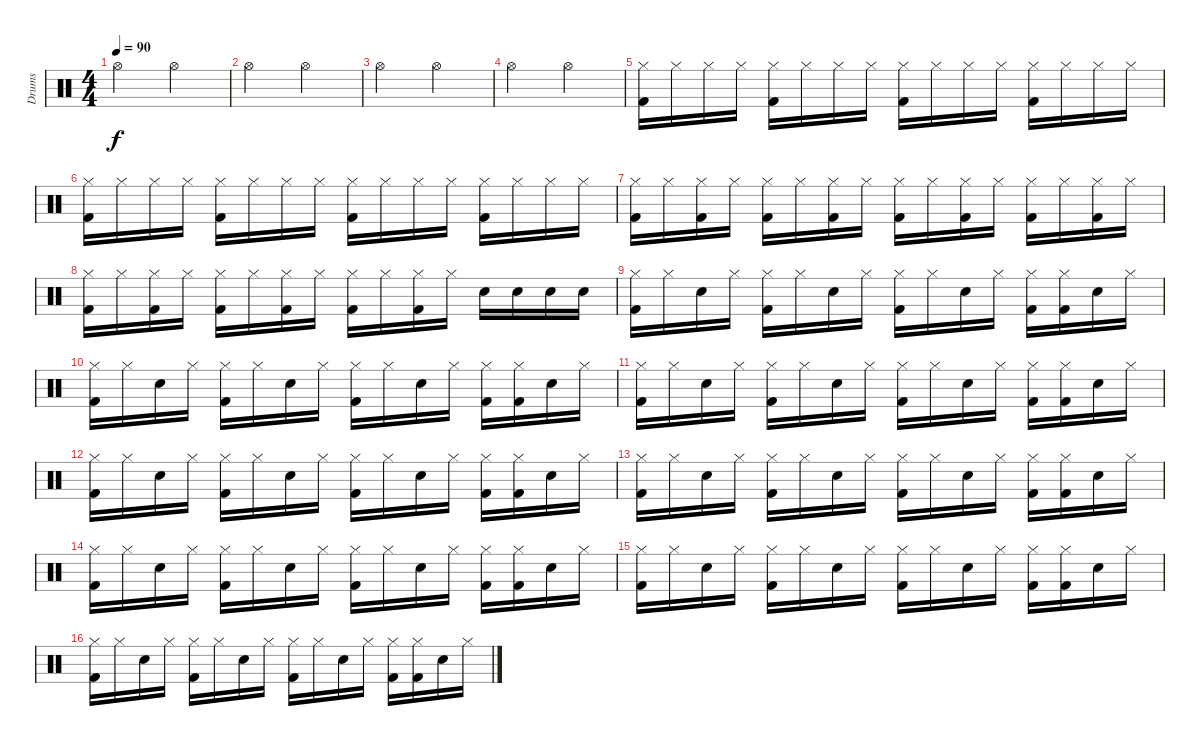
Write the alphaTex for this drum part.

\track ("Drums" "Drums") {instrument percussion}
\staff {score}
\articulation defaults
\ts (4 4)
\tempo 90
\clef neutral
\ks c "Hi-Hat (open)".2{dy f} "Hi-Hat (open)".2
|
"Hi-Hat (open)".2 "Hi-Hat (open)".2 |
"Hi-Hat (open)".2 "Hi-Hat (open)".2 |
"Hi-Hat (open)".2 "Hi-Hat (open)".2 |
("Hi-Hat (closed)" "Kick (hit) 2").16 "Hi-Hat (closed)".16 "Hi-Hat (closed)".16 "Hi-Hat (closed)".16 ("Hi-Hat (closed)" "Kick (hit) 2").16 "Hi-Hat (closed)".16 "Hi-Hat (closed)".16 "Hi-Hat (closed)".16 ("Hi-Hat (closed)" "Kick (hit) 2").16 "Hi-Hat (closed)".16 "Hi-Hat (closed)".16 "Hi-Hat (closed)".16 ("Hi-Hat (closed)" "Kick (hit) 2").16 "Hi-Hat (closed)".16 "Hi-Hat (closed)".16 "Hi-Hat (closed)".16 |
("Hi-Hat (closed)" "Kick (hit) 2").16 "Hi-Hat (closed)".16 "Hi-Hat (closed)".16 "Hi-Hat (closed)".16 ("Hi-Hat (closed)" "Kick (hit) 2").16 "Hi-Hat (closed)".16 "Hi-Hat (closed)".16 "Hi-Hat (closed)".16 ("Hi-Hat (closed)" "Kick (hit) 2").16 "Hi-Hat (closed)".16 "Hi-Hat (closed)".16 "Hi-Hat (closed)".16 ("Hi-Hat (closed)" "Kick (hit) 2").16 "Hi-Hat (closed)".16 "Hi-Hat (closed)".16 "Hi-Hat (closed)".16 |
("Hi-Hat (closed)" "Kick (hit) 2").16 "Hi-Hat (closed)".16 ("Hi-Hat (closed)" "Kick (hit) 2").16 "Hi-Hat (closed)".16 ("Hi-Hat (closed)" "Kick (hit) 2").16 "Hi-Hat (closed)".16 ("Hi-Hat (closed)" "Kick (hit) 2").16 "Hi-Hat (closed)".16 ("Hi-Hat (closed)" "Kick (hit) 2").16 "Hi-Hat (closed)".16 ("Hi-Hat (closed)" "Kick (hit) 2").16 "Hi-Hat (closed)".16 ("Hi-Hat (closed)" "Kick (hit) 2").16 "Hi-Hat (closed)".16 ("Hi-Hat (closed)" "Kick (hit) 2").16 "Hi-Hat (closed)".16 |
("Hi-Hat (closed)" "Kick (hit) 2").16 "Hi-Hat (closed)".16 ("Hi-Hat (closed)" "Kick (hit) 2").16 "Hi-Hat (closed)".16 ("Hi-Hat (closed)" "Kick (hit) 2").16 "Hi-Hat (closed)".16 ("Hi-Hat (closed)" "Kick (hit) 2").16 "Hi-Hat (closed)".16 ("Hi-Hat (closed)" "Kick (hit) 2").16 "Hi-Hat (closed)".16 ("Hi-Hat (closed)" "Kick (hit) 2").16 "Hi-Hat (closed)".16 "Snare (hit) 2".16 "Snare (hit) 2".16 "Snare (hit) 2".16 "Snare (hit) 2".16 |
("Hi-Hat (closed)" "Kick (hit) 2").16 "Hi-Hat (closed)".16 "Electric Snare (hit)".16 "Hi-Hat (closed)".16 ("Hi-Hat (closed)" "Kick (hit) 2").16 "Hi-Hat (closed)".16 "Electric Snare (hit)".16 "Hi-Hat (closed)".16 ("Hi-Hat (closed)" "Kick (hit) 2").16 "Hi-Hat (closed)".16 "Electric Snare (hit)".16 "Hi-Hat (closed)".16 ("Hi-Hat (closed)" "Kick (hit) 2").16 ("Hi-Hat (closed)" "Kick (hit) 2").16 "Electric Snare (hit)".16 "Hi-Hat (closed)".16 |
("Hi-Hat (closed)" "Kick (hit) 2").16 "Hi-Hat (closed)".16 "Electric Snare (hit)".16 "Hi-Hat (closed)".16 ("Hi-Hat (closed)" "Kick (hit) 2").16 "Hi-Hat (closed)".16 "Electric Snare (hit)".16 "Hi-Hat (closed)".16 ("Hi-Hat (closed)" "Kick (hit) 2").16 "Hi-Hat (closed)".16 "Electric Snare (hit)".16 "Hi-Hat (closed)".16 ("Hi-Hat (closed)" "Kick (hit) 2").16 ("Hi-Hat (closed)" "Kick (hit) 2").16 "Electric Snare (hit)".16 "Hi-Hat (closed)".16 |
("Hi-Hat (closed)" "Kick (hit) 2").16 "Hi-Hat (closed)".16 "Electric Snare (hit)".16 "Hi-Hat (closed)".16 ("Hi-Hat (closed)" "Kick (hit) 2").16 "Hi-Hat (closed)".16 "Electric Snare (hit)".16 "Hi-Hat (closed)".16 ("Hi-Hat (closed)" "Kick (hit) 2").16 "Hi-Hat (closed)".16 "Electric Snare (hit)".16 "Hi-Hat (closed)".16 ("Hi-Hat (closed)" "Kick (hit) 2").16 ("Hi-Hat (closed)" "Kick (hit) 2").16 "Electric Snare (hit)".16 "Hi-Hat (closed)".16 |
("Hi-Hat (closed)" "Kick (hit) 2").16 "Hi-Hat (closed)".16 "Electric Snare (hit)".16 "Hi-Hat (closed)".16 ("Hi-Hat (closed)" "Kick (hit) 2").16 "Hi-Hat (closed)".16 "Electric Snare (hit)".16 "Hi-Hat (closed)".16 ("Hi-Hat (closed)" "Kick (hit) 2").16 "Hi-Hat (closed)".16 "Electric Snare (hit)".16 "Hi-Hat (closed)".16 ("Hi-Hat (closed)" "Kick (hit) 2").16 ("Hi-Hat (closed)" "Kick (hit) 2").16 "Electric Snare (hit)".16 "Hi-Hat (closed)".16 |
("Hi-Hat (closed)" "Kick (hit) 2").16 "Hi-Hat (closed)".16 "Electric Snare (hit)".16 "Hi-Hat (closed)".16 ("Hi-Hat (closed)" "Kick (hit) 2").16 "Hi-Hat (closed)".16 "Electric Snare (hit)".16 "Hi-Hat (closed)".16 ("Hi-Hat (closed)" "Kick (hit) 2").16 "Hi-Hat (closed)".16 "Electric Snare (hit)".16 "Hi-Hat (closed)".16 ("Hi-Hat (closed)" "Kick (hit) 2").16 ("Hi-Hat (closed)" "Kick (hit) 2").16 "Electric Snare (hit)".16 "Hi-Hat (closed)".16 |
("Hi-Hat (closed)" "Kick (hit) 2").16 "Hi-Hat (closed)".16 "Electric Snare (hit)".16 "Hi-Hat (closed)".16 ("Hi-Hat (closed)" "Kick (hit) 2").16 "Hi-Hat (closed)".16 "Electric Snare (hit)".16 "Hi-Hat (closed)".16 ("Hi-Hat (closed)" "Kick (hit) 2").16 "Hi-Hat (closed)".16 "Electric Snare (hit)".16 "Hi-Hat (closed)".16 ("Hi-Hat (closed)" "Kick (hit) 2").16 ("Hi-Hat (closed)" "Kick (hit) 2").16 "Electric Snare (hit)".16 "Hi-Hat (closed)".16 |
("Hi-Hat (closed)" "Kick (hit) 2").16 "Hi-Hat (closed)".16 "Electric Snare (hit)".16 "Hi-Hat (closed)".16 ("Hi-Hat (closed)" "Kick (hit) 2").16 "Hi-Hat (closed)".16 "Electric Snare (hit)".16 "Hi-Hat (closed)".16 ("Hi-Hat (closed)" "Kick (hit) 2").16 "Hi-Hat (closed)".16 "Electric Snare (hit)".16 "Hi-Hat (closed)".16 ("Hi-Hat (closed)" "Kick (hit) 2").16 ("Hi-Hat (closed)" "Kick (hit) 2").16 "Electric Snare (hit)".16 "Hi-Hat (closed)".16 |
("Hi-Hat (closed)" "Kick (hit) 2").16 "Hi-Hat (closed)".16 "Electric Snare (hit)".16 "Hi-Hat (closed)".16 ("Hi-Hat (closed)" "Kick (hit) 2").16 "Hi-Hat (closed)".16 "Electric Snare (hit)".16 "Hi-Hat (closed)".16 ("Hi-Hat (closed)" "Kick (hit) 2").16 "Hi-Hat (closed)".16 "Electric Snare (hit)".16 "Hi-Hat (closed)".16 ("Hi-Hat (closed)" "Kick (hit) 2").16 ("Hi-Hat (closed)" "Kick (hit) 2").16 "Electric Snare (hit)".16 "Hi-Hat (closed)".16
